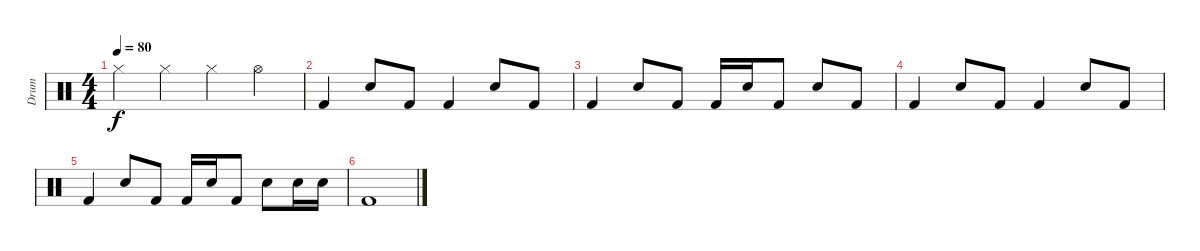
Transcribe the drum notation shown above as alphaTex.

\track ("Drum" "Drum") {instrument percussion}
\staff {score}
\articulation defaults
\ts (4 4)
\tempo 80
\clef neutral
\ks c "Hi-Hat (closed)".4{dy f} "Hi-Hat (closed)".4 "Hi-Hat (closed)".4 "Hi-Hat (open)".4
|
"Kick (hit) 2".4 "Snare (hit) 2".8 "Kick (hit) 2".8 "Kick (hit) 2".4 "Snare (hit) 2".8 "Kick (hit) 2".8 |
"Kick (hit) 2".4 "Electric Snare (hit)".8 "Kick (hit) 2".8 "Kick (hit) 2".16 "Snare (hit) 2".16 "Kick (hit) 2".8 "Snare (hit) 2".8 "Kick (hit) 2".8 |
"Kick (hit) 2".4 "Snare (hit) 2".8 "Kick (hit) 2".8 "Kick (hit) 2".4 "Snare (hit) 2".8 "Kick (hit) 2".8 |
"Kick (hit) 2".4 "Snare (hit) 2".8 "Kick (hit) 2".8 "Kick (hit) 2".16 "Snare (hit) 2".16 "Kick (hit) 2".8 "Snare (hit) 2".8 "Snare (hit) 2".16 "Snare (hit) 2".16 |
"Kick (hit) 2".1
